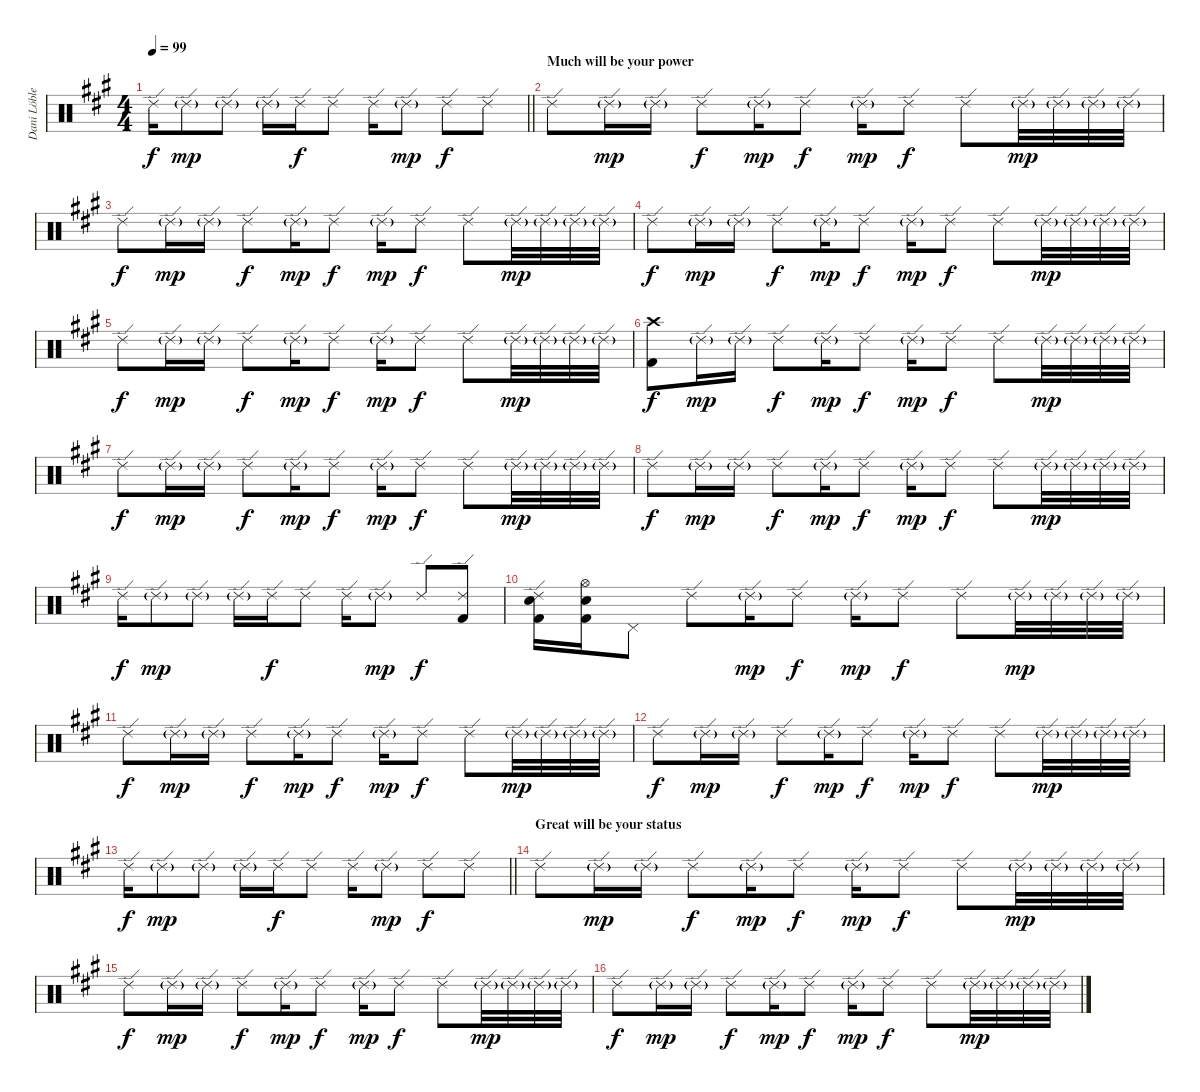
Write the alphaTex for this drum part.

\track ("Dani Löble" "Dani Löble") {instrument percussion}
\staff {score}
\articulation defaults
\ts (4 4)
\tempo 99
\clef neutral
\barLineRight lightlight
\ks f#minor "Ride (edge) 2".16{dy f} "Ride (edge) 2"{g}.8{dy mp} "Ride (edge) 2"{g}.8 "Ride (edge) 2"{g}.16 "Ride (edge) 2".16{dy f} "Ride (edge) 2".8 "Ride (edge) 2".16 "Ride (edge) 2"{g}.8{dy mp} "Ride (edge) 2".8{dy f} "Ride (edge) 2".8
|
\section ("" "Much will be your power")
"Ride (edge) 2".8 "Ride (edge) 2"{g}.16{dy mp} "Ride (edge) 2"{g}.16 "Ride (edge) 2".8{dy f} "Ride (edge) 2"{g}.16{dy mp} "Ride (edge) 2".8{dy f} "Ride (edge) 2"{g}.16{dy mp} "Ride (edge) 2".8{dy f} "Ride (edge) 2".8 "Ride (edge) 2"{g}.32{dy mp} "Ride (edge) 2"{g}.32 "Ride (edge) 2"{g}.32 "Ride (edge) 2"{g}.32 |
"Ride (edge) 2".8{dy f} "Ride (edge) 2"{g}.16{dy mp} "Ride (edge) 2"{g}.16 "Ride (edge) 2".8{dy f} "Ride (edge) 2"{g}.16{dy mp} "Ride (edge) 2".8{dy f} "Ride (edge) 2"{g}.16{dy mp} "Ride (edge) 2".8{dy f} "Ride (edge) 2".8 "Ride (edge) 2"{g}.32{dy mp} "Ride (edge) 2"{g}.32 "Ride (edge) 2"{g}.32 "Ride (edge) 2"{g}.32 |
"Ride (edge) 2".8{dy f} "Ride (edge) 2"{g}.16{dy mp} "Ride (edge) 2"{g}.16 "Ride (edge) 2".8{dy f} "Ride (edge) 2"{g}.16{dy mp} "Ride (edge) 2".8{dy f} "Ride (edge) 2"{g}.16{dy mp} "Ride (edge) 2".8{dy f} "Ride (edge) 2".8 "Ride (edge) 2"{g}.32{dy mp} "Ride (edge) 2"{g}.32 "Ride (edge) 2"{g}.32 "Ride (edge) 2"{g}.32 |
"Ride (edge) 2".8{dy f} "Ride (edge) 2"{g}.16{dy mp} "Ride (edge) 2"{g}.16 "Ride (edge) 2".8{dy f} "Ride (edge) 2"{g}.16{dy mp} "Ride (edge) 2".8{dy f} "Ride (edge) 2"{g}.16{dy mp} "Ride (edge) 2".8{dy f} "Ride (edge) 2".8 "Ride (edge) 2"{g}.32{dy mp} "Ride (edge) 2"{g}.32 "Ride (edge) 2"{g}.32 "Ride (edge) 2"{g}.32 |
("Crash high (hit)" "Kick (hit) 2").8{dy f} "Ride (edge) 2"{g}.16{dy mp} "Ride (edge) 2"{g}.16 "Ride (edge) 2".8{dy f} "Ride (edge) 2"{g}.16{dy mp} "Ride (edge) 2".8{dy f} "Ride (edge) 2"{g}.16{dy mp} "Ride (edge) 2".8{dy f} "Ride (edge) 2".8 "Ride (edge) 2"{g}.32{dy mp} "Ride (edge) 2"{g}.32 "Ride (edge) 2"{g}.32 "Ride (edge) 2"{g}.32 |
"Ride (edge) 2".8{dy f} "Ride (edge) 2"{g}.16{dy mp} "Ride (edge) 2"{g}.16 "Ride (edge) 2".8{dy f} "Ride (edge) 2"{g}.16{dy mp} "Ride (edge) 2".8{dy f} "Ride (edge) 2"{g}.16{dy mp} "Ride (edge) 2".8{dy f} "Ride (edge) 2".8 "Ride (edge) 2"{g}.32{dy mp} "Ride (edge) 2"{g}.32 "Ride (edge) 2"{g}.32 "Ride (edge) 2"{g}.32 |
"Ride (edge) 2".8{dy f} "Ride (edge) 2"{g}.16{dy mp} "Ride (edge) 2"{g}.16 "Ride (edge) 2".8{dy f} "Ride (edge) 2"{g}.16{dy mp} "Ride (edge) 2".8{dy f} "Ride (edge) 2"{g}.16{dy mp} "Ride (edge) 2".8{dy f} "Ride (edge) 2".8 "Ride (edge) 2"{g}.32{dy mp} "Ride (edge) 2"{g}.32 "Ride (edge) 2"{g}.32 "Ride (edge) 2"{g}.32 |
"Ride (edge) 2".16{dy f} "Ride (edge) 2"{g}.8{dy mp} "Ride (edge) 2"{g}.8 "Ride (edge) 2"{g}.16 "Ride (edge) 2".16{dy f} "Ride (edge) 2".8 "Ride (edge) 2".16 "Ride (edge) 2"{g}.8{dy mp} "Ride (edge) 2".8{dy f} ("Ride (edge) 2" "Kick (hit) 2").8 |
("Ride (edge) 2" "Snare (hit) 2" "Kick (hit) 2").16 ("Hi-Hat (open)" "Snare (hit) 2" "Kick (hit) 2").16 "Pedal Hi-Hat (hit)".8 "Ride (edge) 2".8 "Ride (edge) 2"{g}.16{dy mp} "Ride (edge) 2".8{dy f} "Ride (edge) 2"{g}.16{dy mp} "Ride (edge) 2".8{dy f} "Ride (edge) 2".8 "Ride (edge) 2"{g}.32{dy mp} "Ride (edge) 2"{g}.32 "Ride (edge) 2"{g}.32 "Ride (edge) 2"{g}.32 |
"Ride (edge) 2".8{dy f} "Ride (edge) 2"{g}.16{dy mp} "Ride (edge) 2"{g}.16 "Ride (edge) 2".8{dy f} "Ride (edge) 2"{g}.16{dy mp} "Ride (edge) 2".8{dy f} "Ride (edge) 2"{g}.16{dy mp} "Ride (edge) 2".8{dy f} "Ride (edge) 2".8 "Ride (edge) 2"{g}.32{dy mp} "Ride (edge) 2"{g}.32 "Ride (edge) 2"{g}.32 "Ride (edge) 2"{g}.32 |
"Ride (edge) 2".8{dy f} "Ride (edge) 2"{g}.16{dy mp} "Ride (edge) 2"{g}.16 "Ride (edge) 2".8{dy f} "Ride (edge) 2"{g}.16{dy mp} "Ride (edge) 2".8{dy f} "Ride (edge) 2"{g}.16{dy mp} "Ride (edge) 2".8{dy f} "Ride (edge) 2".8 "Ride (edge) 2"{g}.32{dy mp} "Ride (edge) 2"{g}.32 "Ride (edge) 2"{g}.32 "Ride (edge) 2"{g}.32 |
\barLineRight lightlight "Ride (edge) 2".16{dy f} "Ride (edge) 2"{g}.8{dy mp} "Ride (edge) 2"{g}.8 "Ride (edge) 2"{g}.16 "Ride (edge) 2".16{dy f} "Ride (edge) 2".8 "Ride (edge) 2".16 "Ride (edge) 2"{g}.8{dy mp} "Ride (edge) 2".8{dy f} "Ride (edge) 2".8
|
\section ("" "Great will be your status")
"Ride (edge) 2".8 "Ride (edge) 2"{g}.16{dy mp} "Ride (edge) 2"{g}.16 "Ride (edge) 2".8{dy f} "Ride (edge) 2"{g}.16{dy mp} "Ride (edge) 2".8{dy f} "Ride (edge) 2"{g}.16{dy mp} "Ride (edge) 2".8{dy f} "Ride (edge) 2".8 "Ride (edge) 2"{g}.32{dy mp} "Ride (edge) 2"{g}.32 "Ride (edge) 2"{g}.32 "Ride (edge) 2"{g}.32 |
"Ride (edge) 2".8{dy f} "Ride (edge) 2"{g}.16{dy mp} "Ride (edge) 2"{g}.16 "Ride (edge) 2".8{dy f} "Ride (edge) 2"{g}.16{dy mp} "Ride (edge) 2".8{dy f} "Ride (edge) 2"{g}.16{dy mp} "Ride (edge) 2".8{dy f} "Ride (edge) 2".8 "Ride (edge) 2"{g}.32{dy mp} "Ride (edge) 2"{g}.32 "Ride (edge) 2"{g}.32 "Ride (edge) 2"{g}.32 |
"Ride (edge) 2".8{dy f} "Ride (edge) 2"{g}.16{dy mp} "Ride (edge) 2"{g}.16 "Ride (edge) 2".8{dy f} "Ride (edge) 2"{g}.16{dy mp} "Ride (edge) 2".8{dy f} "Ride (edge) 2"{g}.16{dy mp} "Ride (edge) 2".8{dy f} "Ride (edge) 2".8 "Ride (edge) 2"{g}.32{dy mp} "Ride (edge) 2"{g}.32 "Ride (edge) 2"{g}.32 "Ride (edge) 2"{g}.32
